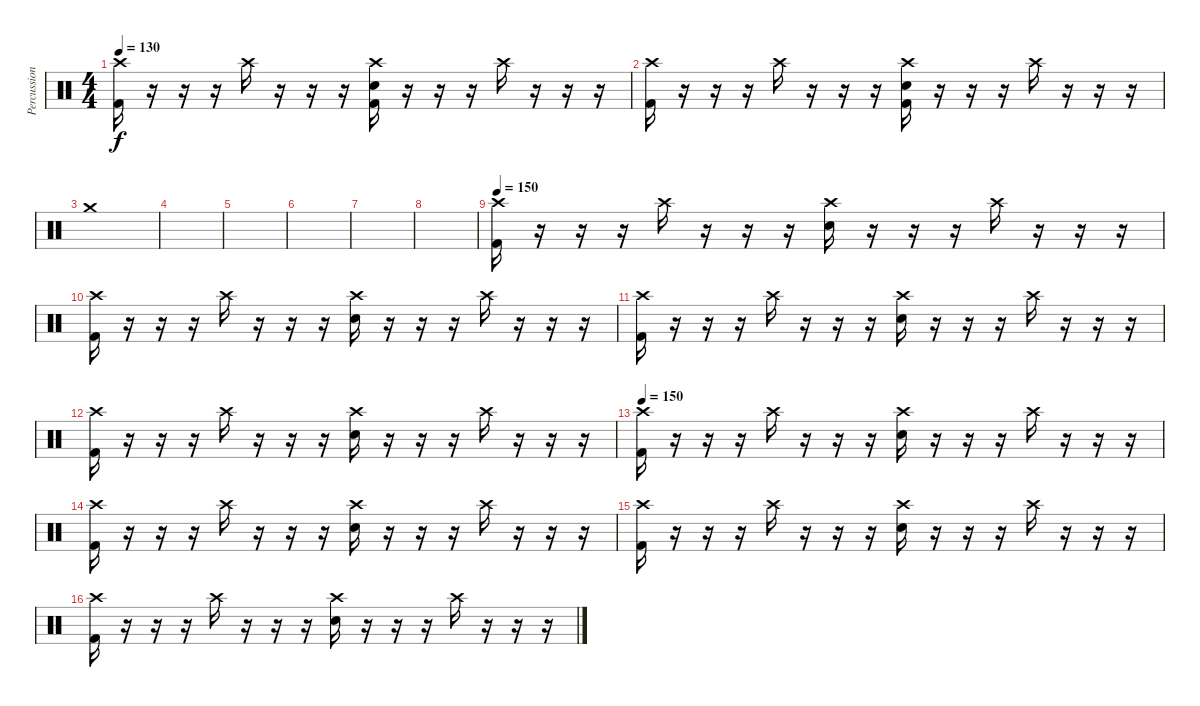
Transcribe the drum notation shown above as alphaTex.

\track ("Percussion" "Percussion") {instrument percussion}
\staff {score}
\articulation defaults
\ts (4 4)
\tempo 130
\clef neutral
\ks c
("Crash high (hit)" "Kick (hit) 2").16{dy f} r.16 r.16 r.16 "Crash high (hit)".16 r.16 r.16 r.16 ("Crash high (hit)" "Electric Snare (hit)" "Kick (hit) 2").16 r.16 r.16 r.16 "Crash high (hit)".16 r.16 r.16 r.16 |
("Crash high (hit)" "Kick (hit) 2").16 r.16 r.16 r.16 "Crash high (hit)".16 r.16 r.16 r.16 ("Crash high (hit)" "Electric Snare (hit)" "Kick (hit) 2").16 r.16 r.16 r.16 "Crash high (hit)".16 r.16 r.16 r.16 |
"Crash medium (hit)".1 |
|
|
|
|
|
\tempo 150
("Crash high (hit)" "Kick (hit) 2").16 r.16 r.16 r.16 "Crash high (hit)".16 r.16 r.16 r.16 ("Crash high (hit)" "Electric Snare (hit)").16 r.16 r.16 r.16 "Crash high (hit)".16 r.16 r.16 r.16 |
("Crash high (hit)" "Kick (hit) 2").16 r.16 r.16 r.16 "Crash high (hit)".16 r.16 r.16 r.16 ("Crash high (hit)" "Electric Snare (hit)").16 r.16 r.16 r.16 "Crash high (hit)".16 r.16 r.16 r.16 |
("Crash high (hit)" "Kick (hit) 2").16 r.16 r.16 r.16 "Crash high (hit)".16 r.16 r.16 r.16 ("Crash high (hit)" "Electric Snare (hit)").16 r.16 r.16 r.16 "Crash high (hit)".16 r.16 r.16 r.16 |
("Crash high (hit)" "Kick (hit) 2").16 r.16 r.16 r.16 "Crash high (hit)".16 r.16 r.16 r.16 ("Crash high (hit)" "Electric Snare (hit)").16 r.16 r.16 r.16 "Crash high (hit)".16 r.16 r.16 r.16 |
\tempo 150
("Crash high (hit)" "Kick (hit) 2").16 r.16 r.16 r.16 "Crash high (hit)".16 r.16 r.16 r.16 ("Crash high (hit)" "Electric Snare (hit)").16 r.16 r.16 r.16 "Crash high (hit)".16 r.16 r.16 r.16 |
("Crash high (hit)" "Kick (hit) 2").16 r.16 r.16 r.16 "Crash high (hit)".16 r.16 r.16 r.16 ("Crash high (hit)" "Electric Snare (hit)").16 r.16 r.16 r.16 "Crash high (hit)".16 r.16 r.16 r.16 |
("Crash high (hit)" "Kick (hit) 2").16 r.16 r.16 r.16 "Crash high (hit)".16 r.16 r.16 r.16 ("Crash high (hit)" "Electric Snare (hit)").16 r.16 r.16 r.16 "Crash high (hit)".16 r.16 r.16 r.16 |
("Crash high (hit)" "Kick (hit) 2").16 r.16 r.16 r.16 "Crash high (hit)".16 r.16 r.16 r.16 ("Crash high (hit)" "Electric Snare (hit)").16 r.16 r.16 r.16 "Crash high (hit)".16 r.16 r.16 r.16
